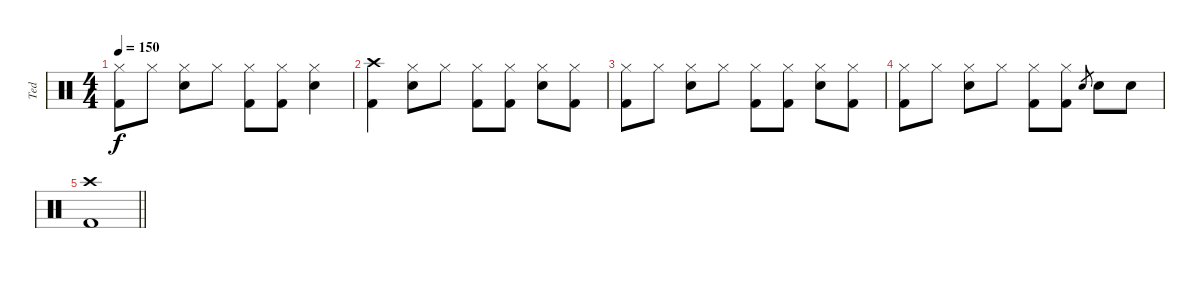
\track ("Ted" "Ted") {instrument percussion}
\staff {score}
\articulation defaults
\ts (4 4)
\tempo 150
\clef neutral
\ks c
("Hi-Hat (closed)" "Kick (hit) 2").8{dy f} "Hi-Hat (closed)".8 ("Hi-Hat (closed)" "Electric Snare (hit)").8 "Hi-Hat (closed)".8 ("Hi-Hat (closed)" "Kick (hit) 2").8 ("Hi-Hat (closed)" "Kick (hit) 2").8 ("Hi-Hat (closed)" "Electric Snare (hit)").4 |
("Crash high (hit)" "Kick (hit) 2").4 ("Hi-Hat (closed)" "Electric Snare (hit)").8 "Hi-Hat (closed)".8 ("Hi-Hat (closed)" "Kick (hit) 2").8 ("Hi-Hat (closed)" "Kick (hit) 2").8 ("Hi-Hat (closed)" "Electric Snare (hit)").8 ("Hi-Hat (closed)" "Kick (hit) 2").8 |
("Hi-Hat (closed)" "Kick (hit) 2").8 "Hi-Hat (closed)".8 ("Hi-Hat (closed)" "Electric Snare (hit)").8 "Hi-Hat (closed)".8 ("Hi-Hat (closed)" "Kick (hit) 2").8 ("Hi-Hat (closed)" "Kick (hit) 2").8 ("Hi-Hat (closed)" "Electric Snare (hit)").8 ("Hi-Hat (closed)" "Kick (hit) 2").8 |
("Hi-Hat (closed)" "Kick (hit) 2").8 "Hi-Hat (closed)".8 ("Hi-Hat (closed)" "Electric Snare (hit)").8 "Hi-Hat (closed)".8 ("Hi-Hat (closed)" "Kick (hit) 2").8 ("Hi-Hat (closed)" "Kick (hit) 2").8 "Electric Snare (hit)".8{gr} "Electric Snare (hit)".8 "Electric Snare (hit)".8 |
\barLineRight lightlight
("Crash high (hit)" "Kick (hit) 2").1
